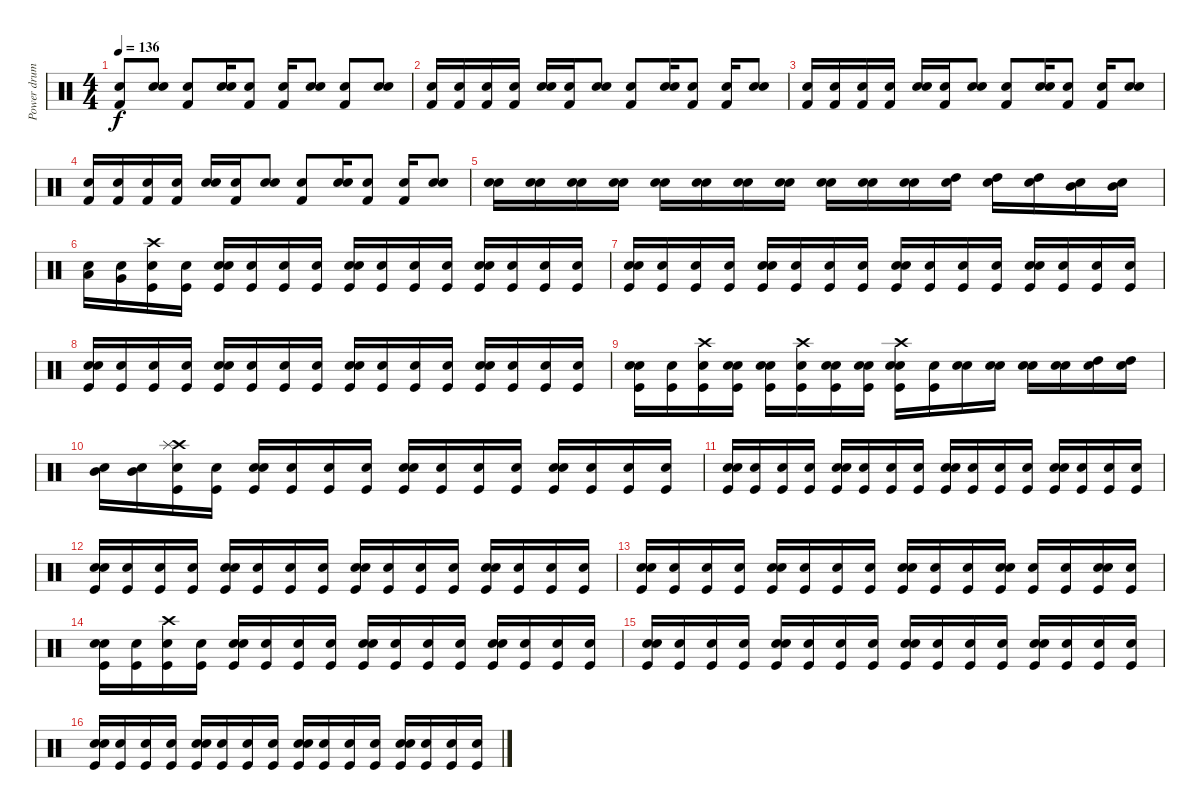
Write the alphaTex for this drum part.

\track ("Power drums" "Power drum") {instrument percussion}
\staff {score}
\articulation defaults
\ts (4 4)
\tempo 136
\clef neutral
\ks c
("Snare (hit)" "Kick (hit) 2").8{dy f} ("Snare (hit)" "Snare (hit) 2").8 ("Snare (hit)" "Kick (hit) 2").8 ("Snare (hit)" "Snare (hit) 2").16 ("Snare (hit)" "Kick (hit) 2").8 ("Snare (hit)" "Kick (hit) 2").16 ("Snare (hit)" "Snare (hit) 2").8 ("Snare (hit)" "Kick (hit) 2").8 ("Snare (hit)" "Snare (hit) 2").8 |
("Snare (hit)" "Kick (hit) 2").16 ("Snare (hit)" "Kick (hit) 2").16 ("Snare (hit)" "Kick (hit) 2").16 ("Snare (hit)" "Kick (hit) 2").16 ("Snare (hit)" "Snare (hit) 2").16 ("Snare (hit)" "Kick (hit) 2").16 ("Snare (hit)" "Snare (hit) 2").8 ("Snare (hit)" "Kick (hit) 2").8 ("Snare (hit)" "Snare (hit) 2").16 ("Snare (hit)" "Kick (hit) 2").8 ("Snare (hit)" "Kick (hit) 2").16 ("Snare (hit)" "Snare (hit) 2").8 |
("Snare (hit)" "Kick (hit) 2").16 ("Snare (hit)" "Kick (hit) 2").16 ("Snare (hit)" "Kick (hit) 2").16 ("Snare (hit)" "Kick (hit) 2").16 ("Snare (hit)" "Snare (hit) 2").16 ("Snare (hit)" "Kick (hit) 2").16 ("Snare (hit)" "Snare (hit) 2").8 ("Snare (hit)" "Kick (hit) 2").8 ("Snare (hit)" "Snare (hit) 2").16 ("Snare (hit)" "Kick (hit) 2").8 ("Snare (hit)" "Kick (hit) 2").16 ("Snare (hit)" "Snare (hit) 2").8 |
("Snare (hit)" "Kick (hit) 2").16 ("Snare (hit)" "Kick (hit) 2").16 ("Snare (hit)" "Kick (hit) 2").16 ("Snare (hit)" "Kick (hit) 2").16 ("Snare (hit)" "Snare (hit) 2").16 ("Snare (hit)" "Kick (hit) 2").16 ("Snare (hit)" "Snare (hit) 2").8 ("Snare (hit)" "Kick (hit) 2").8 ("Snare (hit)" "Snare (hit) 2").16 ("Snare (hit)" "Kick (hit) 2").8 ("Snare (hit)" "Kick (hit) 2").16 ("Snare (hit)" "Snare (hit) 2").8 |
("Snare (hit)" "Snare (hit) 2").16 ("Snare (hit)" "Snare (hit) 2").16 ("Snare (hit)" "Snare (hit) 2").16 ("Snare (hit)" "Snare (hit) 2").16 ("Snare (hit)" "Snare (hit) 2").16 ("Snare (hit)" "Snare (hit) 2").16 ("Snare (hit)" "Snare (hit) 2").16 ("Snare (hit)" "Snare (hit) 2").16 ("Snare (hit)" "Snare (hit) 2").16 ("Snare (hit)" "Snare (hit) 2").16 ("Snare (hit)" "Snare (hit) 2").16 ("Snare (hit)" "High Tom (hit)").16 ("Snare (hit)" "High Tom (hit)").16 ("Snare (hit)" "High Tom (hit)").16 ("Snare (hit)" "Mid Tom (hit)").16 ("Snare (hit)" "Mid Tom (hit)").16 |
("Snare (hit)" "Low Tom (hit)").16 ("Snare (hit)" "Very Low Tom (hit)").16 ("Snare (hit)" "Kick (hit)" "Crash high (hit)").16 ("Snare (hit)" "Kick (hit)").16 ("Snare (hit)" "Kick (hit)" "Snare (hit) 2").16 ("Snare (hit)" "Kick (hit)").16 ("Snare (hit)" "Kick (hit)").16 ("Snare (hit)" "Kick (hit)").16 ("Snare (hit)" "Kick (hit)" "Snare (hit) 2").16 ("Snare (hit)" "Kick (hit)").16 ("Snare (hit)" "Kick (hit)").16 ("Snare (hit)" "Kick (hit)").16 ("Snare (hit)" "Kick (hit)" "Snare (hit) 2").16 ("Snare (hit)" "Kick (hit)").16 ("Snare (hit)" "Kick (hit)").16 ("Snare (hit)" "Kick (hit)").16 |
("Snare (hit)" "Kick (hit)" "Snare (hit) 2").16 ("Snare (hit)" "Kick (hit)").16 ("Snare (hit)" "Kick (hit)").16 ("Snare (hit)" "Kick (hit)").16 ("Snare (hit)" "Kick (hit)" "Snare (hit) 2").16 ("Snare (hit)" "Kick (hit)").16 ("Snare (hit)" "Kick (hit)").16 ("Snare (hit)" "Kick (hit)").16 ("Snare (hit)" "Kick (hit)" "Snare (hit) 2").16 ("Snare (hit)" "Kick (hit)").16 ("Snare (hit)" "Kick (hit)").16 ("Snare (hit)" "Kick (hit)").16 ("Snare (hit)" "Kick (hit)" "Snare (hit) 2").16 ("Snare (hit)" "Kick (hit)").16 ("Snare (hit)" "Kick (hit)").16 ("Snare (hit)" "Kick (hit)").16 |
("Snare (hit)" "Kick (hit)" "Snare (hit) 2").16 ("Snare (hit)" "Kick (hit)").16 ("Snare (hit)" "Kick (hit)").16 ("Snare (hit)" "Kick (hit)").16 ("Snare (hit)" "Kick (hit)" "Snare (hit) 2").16 ("Snare (hit)" "Kick (hit)").16 ("Snare (hit)" "Kick (hit)").16 ("Snare (hit)" "Kick (hit)").16 ("Snare (hit)" "Kick (hit)" "Snare (hit) 2").16 ("Snare (hit)" "Kick (hit)").16 ("Snare (hit)" "Kick (hit)").16 ("Snare (hit)" "Kick (hit)").16 ("Snare (hit)" "Kick (hit)" "Snare (hit) 2").16 ("Snare (hit)" "Kick (hit)").16 ("Snare (hit)" "Kick (hit)").16 ("Snare (hit)" "Kick (hit)").16 |
("Snare (hit)" "Kick (hit)" "Snare (hit) 2").16 ("Snare (hit)" "Kick (hit)").16 ("Snare (hit)" "Kick (hit)" "Crash high (hit)").16 ("Snare (hit)" "Kick (hit)" "Snare (hit) 2").16 ("Snare (hit)" "Kick (hit)" "Snare (hit) 2").16 ("Snare (hit)" "Kick (hit)" "Crash high (hit)").16 ("Snare (hit)" "Kick (hit)" "Snare (hit) 2").16 ("Snare (hit)" "Kick (hit)" "Snare (hit) 2").16 ("Snare (hit)" "Kick (hit)" "Snare (hit) 2" "Crash high (hit)").16 ("Snare (hit)" "Kick (hit)").16 ("Snare (hit)" "Snare (hit) 2").16 ("Snare (hit)" "Snare (hit) 2").16 ("Snare (hit)" "Snare (hit) 2").16 ("Snare (hit)" "Snare (hit) 2").16 ("Snare (hit)" "High Tom (hit)").16 ("Snare (hit)" "High Tom (hit)").16 |
("Snare (hit)" "Mid Tom (hit)").16 ("Snare (hit)" "Mid Tom (hit)").16 ("Snare (hit)" "Kick (hit)" "Crash high (hit)" "Splash (hit)").16 ("Snare (hit)" "Kick (hit)").16 ("Snare (hit)" "Kick (hit)" "Snare (hit) 2").16 ("Snare (hit)" "Kick (hit)").16 ("Snare (hit)" "Kick (hit)").16 ("Snare (hit)" "Kick (hit)").16 ("Snare (hit)" "Kick (hit)" "Snare (hit) 2").16 ("Snare (hit)" "Kick (hit)").16 ("Snare (hit)" "Kick (hit)").16 ("Snare (hit)" "Kick (hit)").16 ("Snare (hit)" "Kick (hit)" "Snare (hit) 2").16 ("Snare (hit)" "Kick (hit)").16 ("Snare (hit)" "Kick (hit)").16 ("Snare (hit)" "Kick (hit)").16 |
("Snare (hit)" "Kick (hit)" "Snare (hit) 2").16 ("Snare (hit)" "Kick (hit)").16 ("Snare (hit)" "Kick (hit)").16 ("Snare (hit)" "Kick (hit)").16 ("Snare (hit)" "Kick (hit)" "Snare (hit) 2").16 ("Snare (hit)" "Kick (hit)").16 ("Snare (hit)" "Kick (hit)").16 ("Snare (hit)" "Kick (hit)").16 ("Snare (hit)" "Kick (hit)" "Snare (hit) 2").16 ("Snare (hit)" "Kick (hit)").16 ("Snare (hit)" "Kick (hit)").16 ("Snare (hit)" "Kick (hit)").16 ("Snare (hit)" "Kick (hit)" "Snare (hit) 2").16 ("Snare (hit)" "Kick (hit)").16 ("Snare (hit)" "Kick (hit)").16 ("Snare (hit)" "Kick (hit)").16 |
("Snare (hit)" "Kick (hit)" "Snare (hit) 2").16 ("Snare (hit)" "Kick (hit)").16 ("Snare (hit)" "Kick (hit)").16 ("Snare (hit)" "Kick (hit)").16 ("Snare (hit)" "Kick (hit)" "Snare (hit) 2").16 ("Snare (hit)" "Kick (hit)").16 ("Snare (hit)" "Kick (hit)").16 ("Snare (hit)" "Kick (hit)").16 ("Snare (hit)" "Kick (hit)" "Snare (hit) 2").16 ("Snare (hit)" "Kick (hit)").16 ("Snare (hit)" "Kick (hit)").16 ("Snare (hit)" "Kick (hit)").16 ("Snare (hit)" "Kick (hit)" "Snare (hit) 2").16 ("Snare (hit)" "Kick (hit)").16 ("Snare (hit)" "Kick (hit)").16 ("Snare (hit)" "Kick (hit)").16 |
("Snare (hit)" "Kick (hit)" "Snare (hit) 2").16 ("Snare (hit)" "Kick (hit)").16 ("Snare (hit)" "Kick (hit)").16 ("Snare (hit)" "Kick (hit)").16 ("Snare (hit)" "Kick (hit)" "Snare (hit) 2").16 ("Snare (hit)" "Kick (hit)").16 ("Snare (hit)" "Kick (hit)").16 ("Snare (hit)" "Kick (hit)").16 ("Snare (hit)" "Kick (hit)" "Snare (hit) 2").16 ("Snare (hit)" "Kick (hit)").16 ("Snare (hit)" "Kick (hit)").16 ("Snare (hit)" "Kick (hit)" "Snare (hit) 2").16 ("Snare (hit)" "Kick (hit)").16 ("Snare (hit)" "Kick (hit)").16 ("Snare (hit)" "Kick (hit)" "Snare (hit) 2").16 ("Snare (hit)" "Kick (hit)").16 |
("Snare (hit)" "Kick (hit)" "Snare (hit) 2").16 ("Snare (hit)" "Kick (hit)").16 ("Snare (hit)" "Kick (hit)" "Crash high (hit)").16 ("Snare (hit)" "Kick (hit)").16 ("Snare (hit)" "Kick (hit)" "Snare (hit) 2").16 ("Snare (hit)" "Kick (hit)").16 ("Snare (hit)" "Kick (hit)").16 ("Snare (hit)" "Kick (hit)").16 ("Snare (hit)" "Kick (hit)" "Snare (hit) 2").16 ("Snare (hit)" "Kick (hit)").16 ("Snare (hit)" "Kick (hit)").16 ("Snare (hit)" "Kick (hit)").16 ("Snare (hit)" "Kick (hit)" "Snare (hit) 2").16 ("Snare (hit)" "Kick (hit)").16 ("Snare (hit)" "Kick (hit)").16 ("Snare (hit)" "Kick (hit)").16 |
("Snare (hit)" "Kick (hit)" "Snare (hit) 2").16 ("Snare (hit)" "Kick (hit)").16 ("Snare (hit)" "Kick (hit)").16 ("Snare (hit)" "Kick (hit)").16 ("Snare (hit)" "Kick (hit)" "Snare (hit) 2").16 ("Snare (hit)" "Kick (hit)").16 ("Snare (hit)" "Kick (hit)").16 ("Snare (hit)" "Kick (hit)").16 ("Snare (hit)" "Kick (hit)" "Snare (hit) 2").16 ("Snare (hit)" "Kick (hit)").16 ("Snare (hit)" "Kick (hit)").16 ("Snare (hit)" "Kick (hit)").16 ("Snare (hit)" "Kick (hit)" "Snare (hit) 2").16 ("Snare (hit)" "Kick (hit)").16 ("Snare (hit)" "Kick (hit)").16 ("Snare (hit)" "Kick (hit)").16 |
("Snare (hit)" "Kick (hit)" "Snare (hit) 2").16 ("Snare (hit)" "Kick (hit)").16 ("Snare (hit)" "Kick (hit)").16 ("Snare (hit)" "Kick (hit)").16 ("Snare (hit)" "Kick (hit)" "Snare (hit) 2").16 ("Snare (hit)" "Kick (hit)").16 ("Snare (hit)" "Kick (hit)").16 ("Snare (hit)" "Kick (hit)").16 ("Snare (hit)" "Kick (hit)" "Snare (hit) 2").16 ("Snare (hit)" "Kick (hit)").16 ("Snare (hit)" "Kick (hit)").16 ("Snare (hit)" "Kick (hit)").16 ("Snare (hit)" "Kick (hit)" "Snare (hit) 2").16 ("Snare (hit)" "Kick (hit)").16 ("Snare (hit)" "Kick (hit)").16 ("Snare (hit)" "Kick (hit)").16
